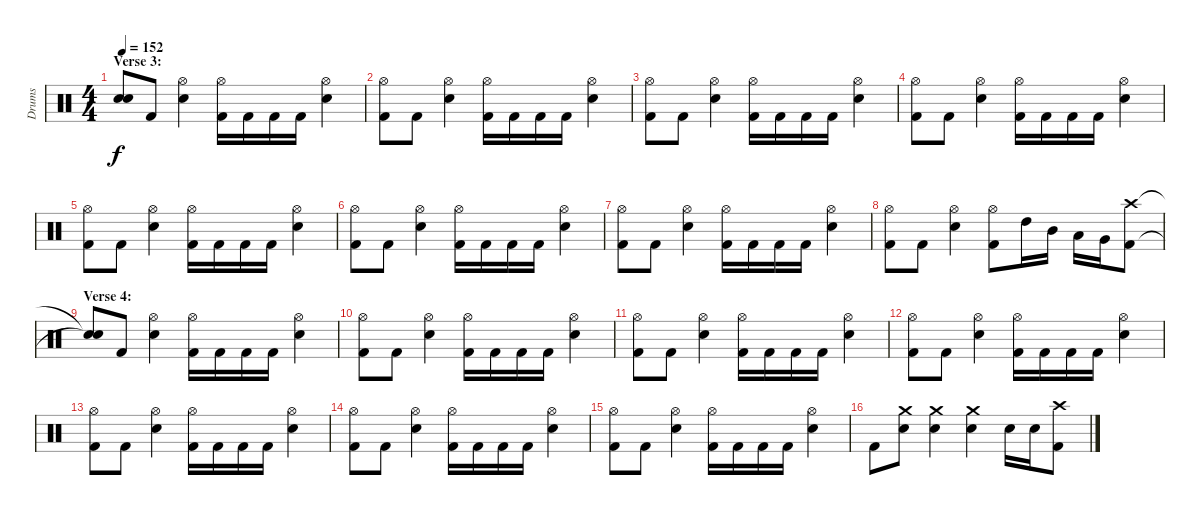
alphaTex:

\track ("Drums" "Drums") {instrument percussion}
\staff {score}
\articulation defaults
\ts (4 4)
\section ("" "Verse 3:")
\tempo 152
\clef neutral
\ks c
("Snare (hit)"{t} "Snare (hit)"{t}).8{dy f} "Kick (hit) 2".8 ("Hi-Hat (open)" "Electric Snare (hit)").4 ("Hi-Hat (open)" "Kick (hit) 2").16 "Kick (hit) 2".16 "Kick (hit) 2".16 "Kick (hit) 2".16 ("Hi-Hat (open)" "Electric Snare (hit)").4 |
("Hi-Hat (open)" "Kick (hit) 2").8 "Kick (hit) 2".8 ("Hi-Hat (open)" "Electric Snare (hit)").4 ("Hi-Hat (open)" "Kick (hit) 2").16 "Kick (hit) 2".16 "Kick (hit) 2".16 "Kick (hit) 2".16 ("Hi-Hat (open)" "Electric Snare (hit)").4 |
("Hi-Hat (open)" "Kick (hit) 2").8 "Kick (hit) 2".8 ("Hi-Hat (open)" "Electric Snare (hit)").4 ("Hi-Hat (open)" "Kick (hit) 2").16 "Kick (hit) 2".16 "Kick (hit) 2".16 "Kick (hit) 2".16 ("Hi-Hat (open)" "Electric Snare (hit)").4 |
("Hi-Hat (open)" "Kick (hit) 2").8 "Kick (hit) 2".8 ("Hi-Hat (open)" "Electric Snare (hit)").4 ("Hi-Hat (open)" "Kick (hit) 2").16 "Kick (hit) 2".16 "Kick (hit) 2".16 "Kick (hit) 2".16 ("Hi-Hat (open)" "Electric Snare (hit)").4 |
("Hi-Hat (open)" "Kick (hit) 2").8 "Kick (hit) 2".8 ("Hi-Hat (open)" "Electric Snare (hit)").4 ("Hi-Hat (open)" "Kick (hit) 2").16 "Kick (hit) 2".16 "Kick (hit) 2".16 "Kick (hit) 2".16 ("Hi-Hat (open)" "Electric Snare (hit)").4 |
("Hi-Hat (open)" "Kick (hit) 2").8 "Kick (hit) 2".8 ("Hi-Hat (open)" "Electric Snare (hit)").4 ("Hi-Hat (open)" "Kick (hit) 2").16 "Kick (hit) 2".16 "Kick (hit) 2".16 "Kick (hit) 2".16 ("Hi-Hat (open)" "Electric Snare (hit)").4 |
("Hi-Hat (open)" "Kick (hit) 2").8 "Kick (hit) 2".8 ("Hi-Hat (open)" "Electric Snare (hit)").4 ("Hi-Hat (open)" "Kick (hit) 2").16 "Kick (hit) 2".16 "Kick (hit) 2".16 "Kick (hit) 2".16 ("Hi-Hat (open)" "Electric Snare (hit)").4 |
("Hi-Hat (open)" "Kick (hit) 2").8 "Kick (hit) 2".8 ("Hi-Hat (open)" "Electric Snare (hit)").4 ("Hi-Hat (open)" "Kick (hit) 2").8 "High Tom (hit)".16 "Mid Tom (hit)".16 "Low Tom (hit)".16 "Very Low Tom (hit)".16 ("Crash high (hit)" "Kick (hit) 2").8 |
\section ("" "Verse 4:")
("Snare (hit)"{t} "Snare (hit)"{t}).8 "Kick (hit) 2".8 ("Hi-Hat (open)" "Electric Snare (hit)").4 ("Hi-Hat (open)" "Kick (hit) 2").16 "Kick (hit) 2".16 "Kick (hit) 2".16 "Kick (hit) 2".16 ("Hi-Hat (open)" "Electric Snare (hit)").4 |
("Hi-Hat (open)" "Kick (hit) 2").8 "Kick (hit) 2".8 ("Hi-Hat (open)" "Electric Snare (hit)").4 ("Hi-Hat (open)" "Kick (hit) 2").16 "Kick (hit) 2".16 "Kick (hit) 2".16 "Kick (hit) 2".16 ("Hi-Hat (open)" "Electric Snare (hit)").4 |
("Hi-Hat (open)" "Kick (hit) 2").8 "Kick (hit) 2".8 ("Hi-Hat (open)" "Electric Snare (hit)").4 ("Hi-Hat (open)" "Kick (hit) 2").16 "Kick (hit) 2".16 "Kick (hit) 2".16 "Kick (hit) 2".16 ("Hi-Hat (open)" "Electric Snare (hit)").4 |
("Hi-Hat (open)" "Kick (hit) 2").8 "Kick (hit) 2".8 ("Hi-Hat (open)" "Electric Snare (hit)").4 ("Hi-Hat (open)" "Kick (hit) 2").16 "Kick (hit) 2".16 "Kick (hit) 2".16 "Kick (hit) 2".16 ("Hi-Hat (open)" "Electric Snare (hit)").4 |
("Hi-Hat (open)" "Kick (hit) 2").8 "Kick (hit) 2".8 ("Hi-Hat (open)" "Electric Snare (hit)").4 ("Hi-Hat (open)" "Kick (hit) 2").16 "Kick (hit) 2".16 "Kick (hit) 2".16 "Kick (hit) 2".16 ("Hi-Hat (open)" "Electric Snare (hit)").4 |
("Hi-Hat (open)" "Kick (hit) 2").8 "Kick (hit) 2".8 ("Hi-Hat (open)" "Electric Snare (hit)").4 ("Hi-Hat (open)" "Kick (hit) 2").16 "Kick (hit) 2".16 "Kick (hit) 2".16 "Kick (hit) 2".16 ("Hi-Hat (open)" "Electric Snare (hit)").4 |
("Hi-Hat (open)" "Kick (hit) 2").8 "Kick (hit) 2".8 ("Hi-Hat (open)" "Electric Snare (hit)").4 ("Hi-Hat (open)" "Kick (hit) 2").16 "Kick (hit) 2".16 "Kick (hit) 2".16 "Kick (hit) 2".16 ("Hi-Hat (open)" "Electric Snare (hit)").4 |
"Kick (hit) 2".8 ("Crash medium (hit)" "Electric Snare (hit)").8 ("Crash medium (hit)" "Electric Snare (hit)").4 ("Crash medium (hit)" "Electric Snare (hit)").4 "Electric Snare (hit)".16 "Electric Snare (hit)".16 ("Crash high (hit)" "Kick (hit) 2").8
